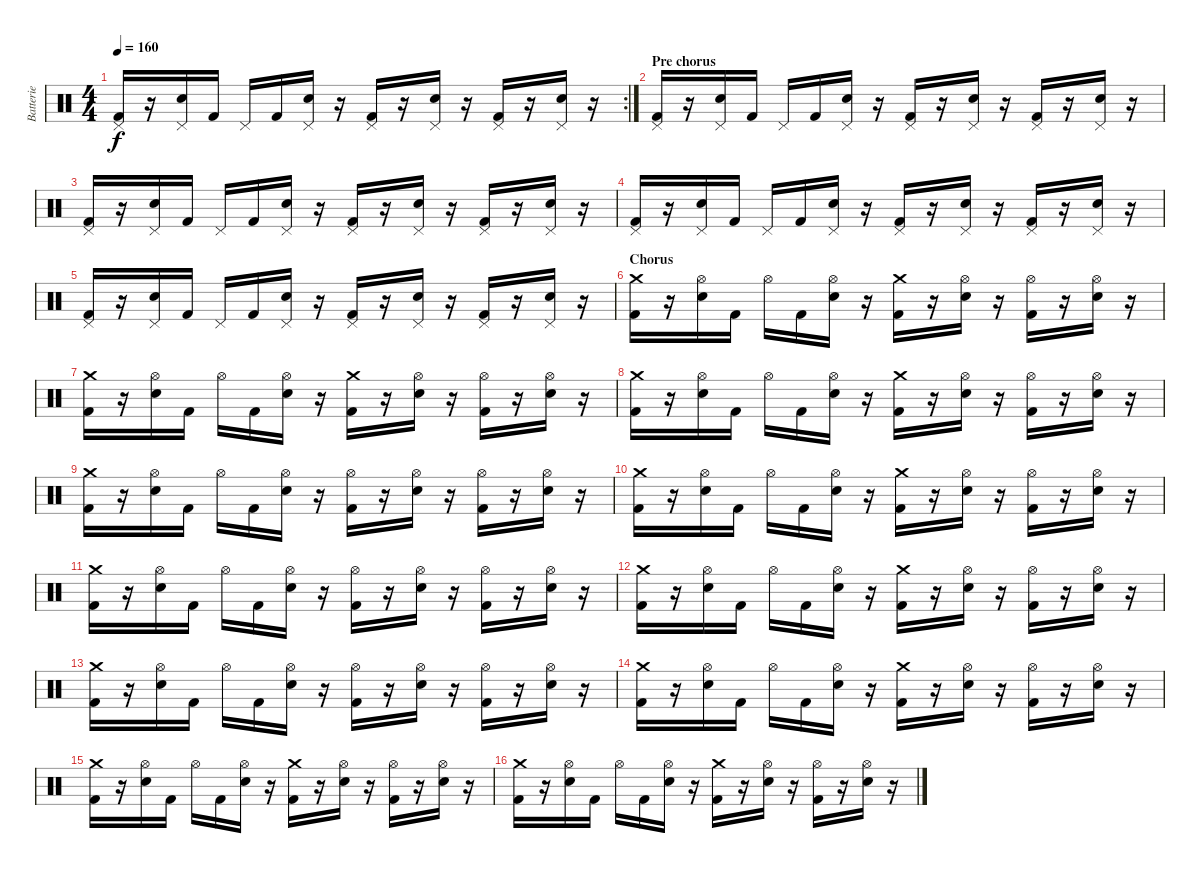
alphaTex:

\track ("Batterie" "Batterie") {instrument percussion}
\staff {score}
\articulation defaults
\rc 2
\ts (4 4)
\tempo 160
\clef neutral
\ks c
("Pedal Hi-Hat (hit)" "Kick (hit) 2").16{dy f} r.16 ("Pedal Hi-Hat (hit)" "Electric Snare (hit)").16 "Kick (hit) 2".16 "Pedal Hi-Hat (hit)".16 "Kick (hit) 2".16 ("Pedal Hi-Hat (hit)" "Electric Snare (hit)").16 r.16 ("Pedal Hi-Hat (hit)" "Kick (hit) 2").16 r.16 ("Pedal Hi-Hat (hit)" "Electric Snare (hit)").16 r.16 ("Pedal Hi-Hat (hit)" "Kick (hit) 2").16 r.16 ("Pedal Hi-Hat (hit)" "Electric Snare (hit)").16 r.16 |
\section ("" "Pre chorus")
("Pedal Hi-Hat (hit)" "Kick (hit) 2").16 r.16 ("Pedal Hi-Hat (hit)" "Electric Snare (hit)").16 "Kick (hit) 2".16 "Pedal Hi-Hat (hit)".16 "Kick (hit) 2".16 ("Pedal Hi-Hat (hit)" "Electric Snare (hit)").16 r.16 ("Pedal Hi-Hat (hit)" "Kick (hit) 2").16 r.16 ("Pedal Hi-Hat (hit)" "Electric Snare (hit)").16 r.16 ("Pedal Hi-Hat (hit)" "Kick (hit) 2").16 r.16 ("Pedal Hi-Hat (hit)" "Electric Snare (hit)").16 r.16 |
("Pedal Hi-Hat (hit)" "Kick (hit) 2").16 r.16 ("Pedal Hi-Hat (hit)" "Electric Snare (hit)").16 "Kick (hit) 2".16 "Pedal Hi-Hat (hit)".16 "Kick (hit) 2".16 ("Pedal Hi-Hat (hit)" "Electric Snare (hit)").16 r.16 ("Pedal Hi-Hat (hit)" "Kick (hit) 2").16 r.16 ("Pedal Hi-Hat (hit)" "Electric Snare (hit)").16 r.16 ("Pedal Hi-Hat (hit)" "Kick (hit) 2").16 r.16 ("Pedal Hi-Hat (hit)" "Electric Snare (hit)").16 r.16 |
("Pedal Hi-Hat (hit)" "Kick (hit) 2").16 r.16 ("Pedal Hi-Hat (hit)" "Electric Snare (hit)").16 "Kick (hit) 2".16 "Pedal Hi-Hat (hit)".16 "Kick (hit) 2".16 ("Pedal Hi-Hat (hit)" "Electric Snare (hit)").16 r.16 ("Pedal Hi-Hat (hit)" "Kick (hit) 2").16 r.16 ("Pedal Hi-Hat (hit)" "Electric Snare (hit)").16 r.16 ("Pedal Hi-Hat (hit)" "Kick (hit) 2").16 r.16 ("Pedal Hi-Hat (hit)" "Electric Snare (hit)").16 r.16 |
("Pedal Hi-Hat (hit)" "Kick (hit) 2").16 r.16 ("Pedal Hi-Hat (hit)" "Electric Snare (hit)").16 "Kick (hit) 2".16 "Pedal Hi-Hat (hit)".16 "Kick (hit) 2".16 ("Pedal Hi-Hat (hit)" "Electric Snare (hit)").16 r.16 ("Pedal Hi-Hat (hit)" "Kick (hit) 2").16 r.16 ("Pedal Hi-Hat (hit)" "Electric Snare (hit)").16 r.16 ("Pedal Hi-Hat (hit)" "Kick (hit) 2").16 r.16 ("Pedal Hi-Hat (hit)" "Electric Snare (hit)").16 r.16 |
\section ("" "Chorus")
("Crash medium (hit)" "Kick (hit) 2").16 r.16 ("Hi-Hat (open)" "Electric Snare (hit)").16 "Kick (hit) 2".16 "Hi-Hat (open)".16 "Kick (hit) 2".16 ("Hi-Hat (open)" "Electric Snare (hit)").16 r.16 ("Crash medium (hit)" "Kick (hit) 2").16 r.16 ("Hi-Hat (open)" "Electric Snare (hit)").16 r.16 ("Hi-Hat (open)" "Kick (hit) 2").16 r.16 ("Hi-Hat (open)" "Electric Snare (hit)").16 r.16 |
("Crash medium (hit)" "Kick (hit) 2").16 r.16 ("Hi-Hat (open)" "Electric Snare (hit)").16 "Kick (hit) 2".16 "Hi-Hat (open)".16 "Kick (hit) 2".16 ("Hi-Hat (open)" "Electric Snare (hit)").16 r.16 ("Crash medium (hit)" "Kick (hit) 2").16 r.16 ("Hi-Hat (open)" "Electric Snare (hit)").16 r.16 ("Hi-Hat (open)" "Kick (hit) 2").16 r.16 ("Hi-Hat (open)" "Electric Snare (hit)").16 r.16 |
("Crash medium (hit)" "Kick (hit) 2").16 r.16 ("Hi-Hat (open)" "Electric Snare (hit)").16 "Kick (hit) 2".16 "Hi-Hat (open)".16 "Kick (hit) 2".16 ("Hi-Hat (open)" "Electric Snare (hit)").16 r.16 ("Crash medium (hit)" "Kick (hit) 2").16 r.16 ("Hi-Hat (open)" "Electric Snare (hit)").16 r.16 ("Hi-Hat (open)" "Kick (hit) 2").16 r.16 ("Hi-Hat (open)" "Electric Snare (hit)").16 r.16 |
("Crash medium (hit)" "Kick (hit) 2").16 r.16 ("Hi-Hat (open)" "Electric Snare (hit)").16 "Kick (hit) 2".16 "Hi-Hat (open)".16 "Kick (hit) 2".16 ("Hi-Hat (open)" "Electric Snare (hit)").16 r.16 ("Hi-Hat (open)" "Kick (hit) 2").16 r.16 ("Hi-Hat (open)" "Electric Snare (hit)").16 r.16 ("Hi-Hat (open)" "Kick (hit) 2").16 r.16 ("Hi-Hat (open)" "Electric Snare (hit)").16 r.16 |
("Crash medium (hit)" "Kick (hit) 2").16 r.16 ("Hi-Hat (open)" "Electric Snare (hit)").16 "Kick (hit) 2".16 "Hi-Hat (open)".16 "Kick (hit) 2".16 ("Hi-Hat (open)" "Electric Snare (hit)").16 r.16 ("Crash medium (hit)" "Kick (hit) 2").16 r.16 ("Hi-Hat (open)" "Electric Snare (hit)").16 r.16 ("Hi-Hat (open)" "Kick (hit) 2").16 r.16 ("Hi-Hat (open)" "Electric Snare (hit)").16 r.16 |
("Crash medium (hit)" "Kick (hit) 2").16 r.16 ("Hi-Hat (open)" "Electric Snare (hit)").16 "Kick (hit) 2".16 "Hi-Hat (open)".16 "Kick (hit) 2".16 ("Hi-Hat (open)" "Electric Snare (hit)").16 r.16 ("Hi-Hat (open)" "Kick (hit) 2").16 r.16 ("Hi-Hat (open)" "Electric Snare (hit)").16 r.16 ("Hi-Hat (open)" "Kick (hit) 2").16 r.16 ("Hi-Hat (open)" "Electric Snare (hit)").16 r.16 |
("Crash medium (hit)" "Kick (hit) 2").16 r.16 ("Hi-Hat (open)" "Electric Snare (hit)").16 "Kick (hit) 2".16 "Hi-Hat (open)".16 "Kick (hit) 2".16 ("Hi-Hat (open)" "Electric Snare (hit)").16 r.16 ("Crash medium (hit)" "Kick (hit) 2").16 r.16 ("Hi-Hat (open)" "Electric Snare (hit)").16 r.16 ("Hi-Hat (open)" "Kick (hit) 2").16 r.16 ("Hi-Hat (open)" "Electric Snare (hit)").16 r.16 |
("Crash medium (hit)" "Kick (hit) 2").16 r.16 ("Hi-Hat (open)" "Electric Snare (hit)").16 "Kick (hit) 2".16 "Hi-Hat (open)".16 "Kick (hit) 2".16 ("Hi-Hat (open)" "Electric Snare (hit)").16 r.16 ("Hi-Hat (open)" "Kick (hit) 2").16 r.16 ("Hi-Hat (open)" "Electric Snare (hit)").16 r.16 ("Hi-Hat (open)" "Kick (hit) 2").16 r.16 ("Hi-Hat (open)" "Electric Snare (hit)").16 r.16 |
("Crash medium (hit)" "Kick (hit) 2").16 r.16 ("Hi-Hat (open)" "Electric Snare (hit)").16 "Kick (hit) 2".16 "Hi-Hat (open)".16 "Kick (hit) 2".16 ("Hi-Hat (open)" "Electric Snare (hit)").16 r.16 ("Crash medium (hit)" "Kick (hit) 2").16 r.16 ("Hi-Hat (open)" "Electric Snare (hit)").16 r.16 ("Hi-Hat (open)" "Kick (hit) 2").16 r.16 ("Hi-Hat (open)" "Electric Snare (hit)").16 r.16 |
("Crash medium (hit)" "Kick (hit) 2").16 r.16 ("Hi-Hat (open)" "Electric Snare (hit)").16 "Kick (hit) 2".16 "Hi-Hat (open)".16 "Kick (hit) 2".16 ("Hi-Hat (open)" "Electric Snare (hit)").16 r.16 ("Crash medium (hit)" "Kick (hit) 2").16 r.16 ("Hi-Hat (open)" "Electric Snare (hit)").16 r.16 ("Hi-Hat (open)" "Kick (hit) 2").16 r.16 ("Hi-Hat (open)" "Electric Snare (hit)").16 r.16 |
("Crash medium (hit)" "Kick (hit) 2").16 r.16 ("Hi-Hat (open)" "Electric Snare (hit)").16 "Kick (hit) 2".16 "Hi-Hat (open)".16 "Kick (hit) 2".16 ("Hi-Hat (open)" "Electric Snare (hit)").16 r.16 ("Crash medium (hit)" "Kick (hit) 2").16 r.16 ("Hi-Hat (open)" "Electric Snare (hit)").16 r.16 ("Hi-Hat (open)" "Kick (hit) 2").16 r.16 ("Hi-Hat (open)" "Electric Snare (hit)").16 r.16
